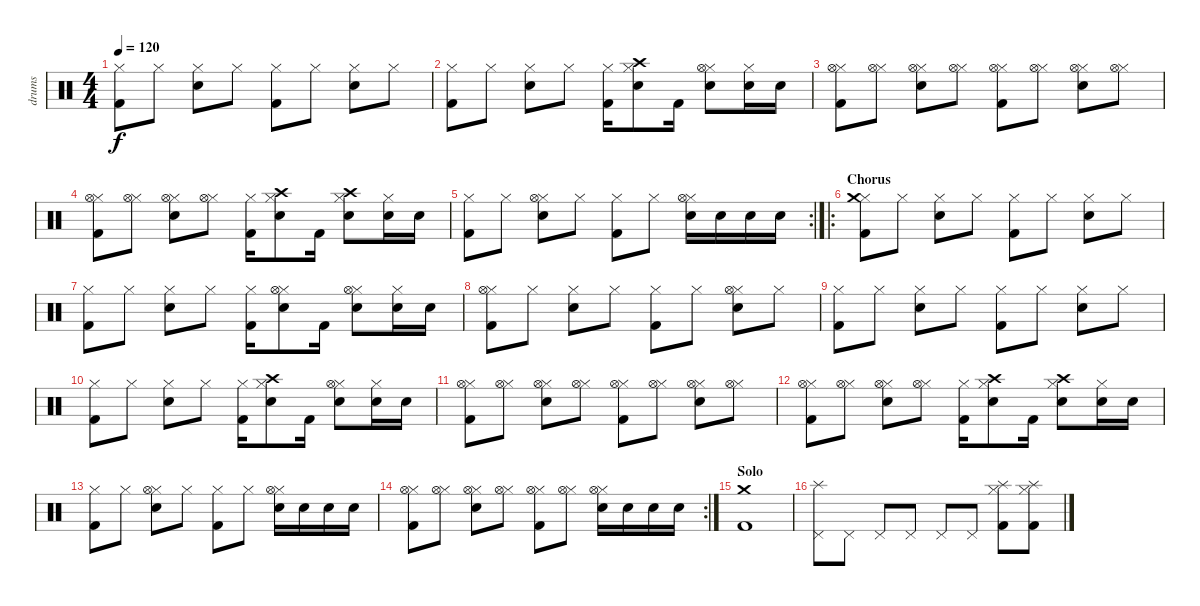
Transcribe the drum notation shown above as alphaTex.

\track ("drums" "drums") {instrument percussion}
\staff {score}
\articulation defaults
\ts (4 4)
\tempo 120
\clef neutral
\ks c
("Hi-Hat (closed)" "Kick (hit) 2").8{dy f} "Hi-Hat (closed)".8 ("Hi-Hat (closed)" "Electric Snare (hit)").8 "Hi-Hat (closed)".8 ("Hi-Hat (closed)" "Kick (hit) 2").8 "Hi-Hat (closed)".8 ("Hi-Hat (closed)" "Electric Snare (hit)").8 "Hi-Hat (closed)".8 |
("Hi-Hat (closed)" "Kick (hit) 2").8 "Hi-Hat (closed)".8 ("Hi-Hat (closed)" "Electric Snare (hit)").8 "Hi-Hat (closed)".8 ("Hi-Hat (closed)" "Kick (hit) 2").16 ("Hi-Hat (closed)" "Crash high (hit)" "Electric Snare (hit)").8 "Kick (hit) 2".16 ("Hi-Hat (closed)" "Hi-Hat (open)" "Electric Snare (hit)").8 ("Hi-Hat (closed)" "Electric Snare (hit)").16 "Electric Snare (hit)".16 |
("Hi-Hat (closed)" "Hi-Hat (open)" "Kick (hit) 2").8 ("Hi-Hat (closed)" "Hi-Hat (open)").8 ("Hi-Hat (closed)" "Hi-Hat (open)" "Electric Snare (hit)").8 ("Hi-Hat (closed)" "Hi-Hat (open)").8 ("Hi-Hat (closed)" "Hi-Hat (open)" "Kick (hit) 2").8 ("Hi-Hat (closed)" "Hi-Hat (open)").8 ("Hi-Hat (closed)" "Hi-Hat (open)" "Electric Snare (hit)").8 ("Hi-Hat (closed)" "Hi-Hat (open)").8 |
("Hi-Hat (closed)" "Hi-Hat (open)" "Kick (hit) 2").8 ("Hi-Hat (closed)" "Hi-Hat (open)").8 ("Hi-Hat (closed)" "Hi-Hat (open)" "Electric Snare (hit)").8 ("Hi-Hat (closed)" "Hi-Hat (open)").8 ("Hi-Hat (closed)" "Kick (hit) 2").16 ("Hi-Hat (closed)" "Crash high (hit)" "Electric Snare (hit)").8 "Kick (hit) 2".16 ("Hi-Hat (closed)" "Crash high (hit)" "Electric Snare (hit)").8 ("Hi-Hat (closed)" "Electric Snare (hit)").16 "Electric Snare (hit)".16 |
\rc 2
("Hi-Hat (closed)" "Kick (hit) 2").8 "Hi-Hat (closed)".8 ("Hi-Hat (closed)" "Hi-Hat (open)" "Electric Snare (hit)").8 "Hi-Hat (closed)".8 ("Hi-Hat (closed)" "Kick (hit) 2").8 "Hi-Hat (closed)".8 ("Hi-Hat (closed)" "Hi-Hat (open)" "Electric Snare (hit)").16 "Electric Snare (hit)".16 "Electric Snare (hit)".16 "Electric Snare (hit)".16 |
\ro
\section ("" "Chorus")
("Hi-Hat (closed)" "Crash medium (hit)" "Kick (hit) 2").8 "Hi-Hat (closed)".8 ("Hi-Hat (closed)" "Electric Snare (hit)").8 "Hi-Hat (closed)".8 ("Hi-Hat (closed)" "Kick (hit) 2").8 "Hi-Hat (closed)".8 ("Hi-Hat (closed)" "Electric Snare (hit)").8 "Hi-Hat (closed)".8 |
("Hi-Hat (closed)" "Kick (hit) 2").8 "Hi-Hat (closed)".8 ("Hi-Hat (closed)" "Electric Snare (hit)").8 "Hi-Hat (closed)".8 ("Hi-Hat (closed)" "Kick (hit) 2").16 ("Hi-Hat (closed)" "Hi-Hat (open)" "Electric Snare (hit)").8 "Kick (hit) 2".16 ("Hi-Hat (closed)" "Hi-Hat (open)" "Electric Snare (hit)").8 ("Hi-Hat (closed)" "Electric Snare (hit)").16 "Electric Snare (hit)".16 |
("Hi-Hat (closed)" "Hi-Hat (open)" "Kick (hit) 2").8 "Hi-Hat (closed)".8 ("Hi-Hat (closed)" "Electric Snare (hit)").8 "Hi-Hat (closed)".8 ("Hi-Hat (closed)" "Kick (hit) 2").8 "Hi-Hat (closed)".8 ("Hi-Hat (closed)" "Hi-Hat (open)" "Electric Snare (hit)").8 "Hi-Hat (closed)".8 |
("Hi-Hat (closed)" "Kick (hit) 2").8 "Hi-Hat (closed)".8 ("Hi-Hat (closed)" "Electric Snare (hit)").8 "Hi-Hat (closed)".8 ("Hi-Hat (closed)" "Kick (hit) 2").8 "Hi-Hat (closed)".8 ("Hi-Hat (closed)" "Electric Snare (hit)").8 "Hi-Hat (closed)".8 |
("Hi-Hat (closed)" "Kick (hit) 2").8 "Hi-Hat (closed)".8 ("Hi-Hat (closed)" "Electric Snare (hit)").8 "Hi-Hat (closed)".8 ("Hi-Hat (closed)" "Kick (hit) 2").16 ("Hi-Hat (closed)" "Crash high (hit)" "Electric Snare (hit)").8 "Kick (hit) 2".16 ("Hi-Hat (closed)" "Hi-Hat (open)" "Electric Snare (hit)").8 ("Hi-Hat (closed)" "Electric Snare (hit)").16 "Electric Snare (hit)".16 |
("Hi-Hat (closed)" "Hi-Hat (open)" "Kick (hit) 2").8 ("Hi-Hat (closed)" "Hi-Hat (open)").8 ("Hi-Hat (closed)" "Hi-Hat (open)" "Electric Snare (hit)").8 ("Hi-Hat (closed)" "Hi-Hat (open)").8 ("Hi-Hat (closed)" "Hi-Hat (open)" "Kick (hit) 2").8 ("Hi-Hat (closed)" "Hi-Hat (open)").8 ("Hi-Hat (closed)" "Hi-Hat (open)" "Electric Snare (hit)").8 ("Hi-Hat (closed)" "Hi-Hat (open)").8 |
("Hi-Hat (closed)" "Hi-Hat (open)" "Kick (hit) 2").8 ("Hi-Hat (closed)" "Hi-Hat (open)").8 ("Hi-Hat (closed)" "Hi-Hat (open)" "Electric Snare (hit)").8 ("Hi-Hat (closed)" "Hi-Hat (open)").8 ("Hi-Hat (closed)" "Kick (hit) 2").16 ("Hi-Hat (closed)" "Crash high (hit)" "Electric Snare (hit)").8 "Kick (hit) 2".16 ("Hi-Hat (closed)" "Crash high (hit)" "Electric Snare (hit)").8 ("Hi-Hat (closed)" "Electric Snare (hit)").16 "Electric Snare (hit)".16 |
("Hi-Hat (closed)" "Kick (hit) 2").8 "Hi-Hat (closed)".8 ("Hi-Hat (closed)" "Hi-Hat (open)" "Electric Snare (hit)").8 "Hi-Hat (closed)".8 ("Hi-Hat (closed)" "Kick (hit) 2").8 "Hi-Hat (closed)".8 ("Hi-Hat (closed)" "Hi-Hat (open)" "Electric Snare (hit)").16 "Electric Snare (hit)".16 "Electric Snare (hit)".16 "Electric Snare (hit)".16 |
\rc 2
("Hi-Hat (closed)" "Hi-Hat (open)" "Kick (hit) 2").8 ("Hi-Hat (closed)" "Hi-Hat (open)").8 ("Hi-Hat (closed)" "Hi-Hat (open)" "Electric Snare (hit)").8 ("Hi-Hat (closed)" "Hi-Hat (open)").8 ("Hi-Hat (closed)" "Hi-Hat (open)" "Kick (hit) 2").8 ("Hi-Hat (closed)" "Hi-Hat (open)").8 ("Hi-Hat (closed)" "Hi-Hat (open)" "Electric Snare (hit)").16 "Electric Snare (hit)".16 "Electric Snare (hit)".16 "Electric Snare (hit)".16 |
\section ("" "Solo")
("Crash medium (hit)" "Kick (hit) 2").1 |
("Pedal Hi-Hat (hit)" "Splash (hit)").8 "Pedal Hi-Hat (hit)".8 "Pedal Hi-Hat (hit)".8 "Pedal Hi-Hat (hit)".8 "Pedal Hi-Hat (hit)".8 "Pedal Hi-Hat (hit)".8 ("Splash (hit)" "Hi-Hat (closed)" "Kick (hit) 2").8 ("Splash (hit)" "Hi-Hat (closed)" "Kick (hit) 2").8
